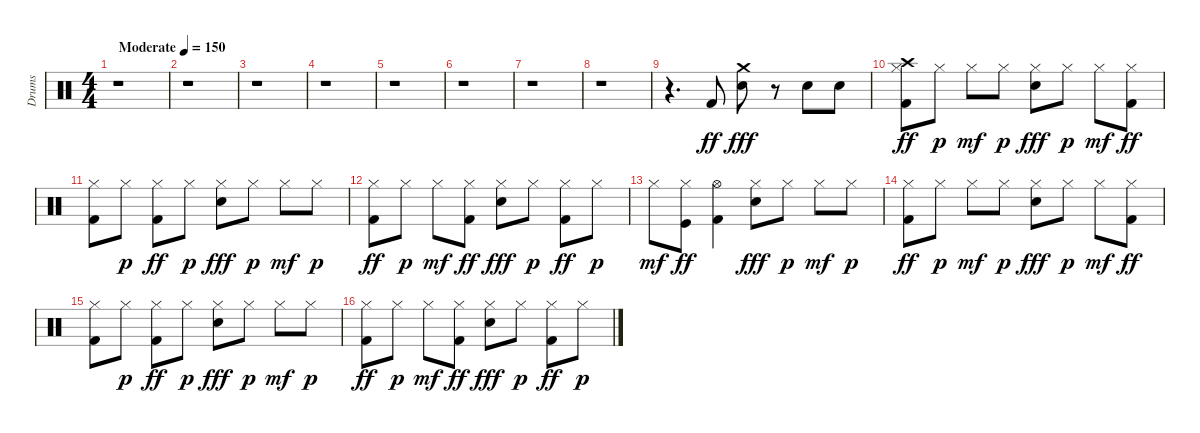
\track ("Drums" "Drums") {instrument percussion}
\staff {score}
\articulation defaults
\ts (4 4)
\tempo (150 "Moderate")
\clef neutral
\ks c
r.1{dy ff} |
r.1 |
r.1 |
r.1 |
r.1 |
r.1 |
r.1 |
r.1 |
r.4{d} "Kick (hit) 2".8 ("Crash medium (hit)" "Electric Snare (hit)").8{dy fff} r.8 "Electric Snare (hit)".8 "Electric Snare (hit)".8 |
("Crash high (hit)" "Hi-Hat (closed)" "Kick (hit) 2").8{dy ff} "Hi-Hat (closed)".8{dy p} "Hi-Hat (closed)".8{dy mf} "Hi-Hat (closed)".8{dy p} ("Hi-Hat (closed)" "Electric Snare (hit)").8{dy fff} "Hi-Hat (closed)".8{dy p} "Hi-Hat (closed)".8{dy mf} ("Hi-Hat (closed)" "Kick (hit) 2").8{dy ff} |
("Hi-Hat (closed)" "Kick (hit) 2").8 "Hi-Hat (closed)".8{dy p} ("Hi-Hat (closed)" "Kick (hit) 2").8{dy ff} "Hi-Hat (closed)".8{dy p} ("Hi-Hat (closed)" "Electric Snare (hit)").8{dy fff} "Hi-Hat (closed)".8{dy p} "Hi-Hat (closed)".8{dy mf} "Hi-Hat (closed)".8{dy p} |
("Hi-Hat (closed)" "Kick (hit) 2").8{dy ff} "Hi-Hat (closed)".8{dy p} "Hi-Hat (closed)".8{dy mf} ("Hi-Hat (closed)" "Kick (hit) 2").8{dy ff} ("Hi-Hat (closed)" "Electric Snare (hit)").8{dy fff} "Hi-Hat (closed)".8{dy p} ("Hi-Hat (closed)" "Kick (hit) 2").8{dy ff} "Hi-Hat (closed)".8{dy p} |
"Hi-Hat (closed)".8{dy mf} ("Hi-Hat (closed)" "Kick (hit)").8{dy ff} ("Hi-Hat (open)" "Kick (hit) 2").4 ("Hi-Hat (closed)" "Electric Snare (hit)").8{dy fff} "Hi-Hat (closed)".8{dy p} "Hi-Hat (closed)".8{dy mf} "Hi-Hat (closed)".8{dy p} |
("Hi-Hat (closed)" "Kick (hit) 2").8{dy ff} "Hi-Hat (closed)".8{dy p} "Hi-Hat (closed)".8{dy mf} "Hi-Hat (closed)".8{dy p} ("Hi-Hat (closed)" "Electric Snare (hit)").8{dy fff} "Hi-Hat (closed)".8{dy p} "Hi-Hat (closed)".8{dy mf} ("Hi-Hat (closed)" "Kick (hit) 2").8{dy ff} |
("Hi-Hat (closed)" "Kick (hit) 2").8 "Hi-Hat (closed)".8{dy p} ("Hi-Hat (closed)" "Kick (hit) 2").8{dy ff} "Hi-Hat (closed)".8{dy p} ("Hi-Hat (closed)" "Electric Snare (hit)").8{dy fff} "Hi-Hat (closed)".8{dy p} "Hi-Hat (closed)".8{dy mf} "Hi-Hat (closed)".8{dy p} |
("Hi-Hat (closed)" "Kick (hit) 2").8{dy ff} "Hi-Hat (closed)".8{dy p} "Hi-Hat (closed)".8{dy mf} ("Hi-Hat (closed)" "Kick (hit) 2").8{dy ff} ("Hi-Hat (closed)" "Electric Snare (hit)").8{dy fff} "Hi-Hat (closed)".8{dy p} ("Hi-Hat (closed)" "Kick (hit) 2").8{dy ff} "Hi-Hat (closed)".8{dy p}
